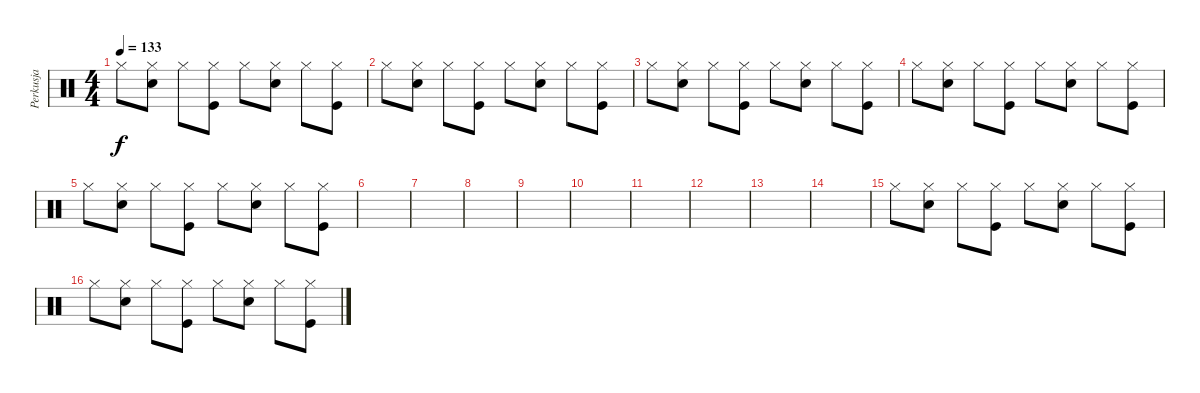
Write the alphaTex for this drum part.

\track ("Perkusja" "Perkusja") {instrument percussion}
\staff {score}
\articulation defaults
\ts (4 4)
\tempo 133
\clef neutral
\ks c "Hi-Hat (closed)".8{dy f}
("Hi-Hat (closed)" "Snare (hit) 2").8 "Hi-Hat (closed)".8 ("Hi-Hat (closed)" "Kick (hit)").8 "Hi-Hat (closed)".8 ("Hi-Hat (closed)" "Snare (hit) 2").8 "Hi-Hat (closed)".8 ("Hi-Hat (closed)" "Kick (hit)").8 |
"Hi-Hat (closed)".8 ("Hi-Hat (closed)" "Snare (hit) 2").8 "Hi-Hat (closed)".8 ("Hi-Hat (closed)" "Kick (hit)").8 "Hi-Hat (closed)".8 ("Hi-Hat (closed)" "Snare (hit) 2").8 "Hi-Hat (closed)".8 ("Hi-Hat (closed)" "Kick (hit)").8 |
"Hi-Hat (closed)".8 ("Hi-Hat (closed)" "Snare (hit) 2").8 "Hi-Hat (closed)".8 ("Hi-Hat (closed)" "Kick (hit)").8 "Hi-Hat (closed)".8 ("Hi-Hat (closed)" "Snare (hit) 2").8 "Hi-Hat (closed)".8 ("Hi-Hat (closed)" "Kick (hit)").8 |
"Hi-Hat (closed)".8 ("Hi-Hat (closed)" "Snare (hit) 2").8 "Hi-Hat (closed)".8 ("Hi-Hat (closed)" "Kick (hit)").8 "Hi-Hat (closed)".8 ("Hi-Hat (closed)" "Snare (hit) 2").8 "Hi-Hat (closed)".8 ("Hi-Hat (closed)" "Kick (hit)").8 |
"Hi-Hat (closed)".8 ("Hi-Hat (closed)" "Snare (hit) 2").8 "Hi-Hat (closed)".8 ("Hi-Hat (closed)" "Kick (hit)").8 "Hi-Hat (closed)".8 ("Hi-Hat (closed)" "Snare (hit) 2").8 "Hi-Hat (closed)".8 ("Hi-Hat (closed)" "Kick (hit)").8 |
|
|
|
|
|
|
|
|
|
"Hi-Hat (closed)".8 ("Hi-Hat (closed)" "Snare (hit) 2").8 "Hi-Hat (closed)".8 ("Hi-Hat (closed)" "Kick (hit)").8 "Hi-Hat (closed)".8 ("Hi-Hat (closed)" "Snare (hit) 2").8 "Hi-Hat (closed)".8 ("Hi-Hat (closed)" "Kick (hit)").8 |
"Hi-Hat (closed)".8 ("Hi-Hat (closed)" "Snare (hit) 2").8 "Hi-Hat (closed)".8 ("Hi-Hat (closed)" "Kick (hit)").8 "Hi-Hat (closed)".8 ("Hi-Hat (closed)" "Snare (hit) 2").8 "Hi-Hat (closed)".8 ("Hi-Hat (closed)" "Kick (hit)").8
